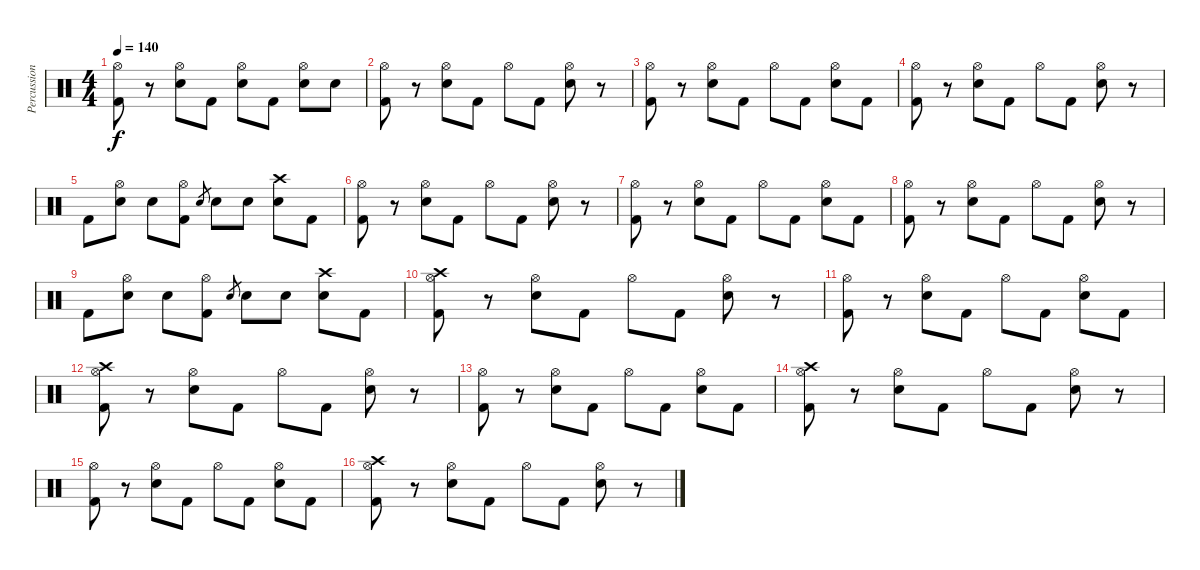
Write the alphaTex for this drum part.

\track ("Percussion" "Percussion") {instrument percussion}
\staff {score}
\articulation defaults
\ts (4 4)
\tempo 140
\clef neutral
\ks c
("Hi-Hat (open)" "Kick (hit) 2").8{dy f} r.8 ("Hi-Hat (open)" "Electric Snare (hit)").8 "Kick (hit) 2".8 ("Hi-Hat (open)" "Electric Snare (hit)").8 "Kick (hit) 2".8 ("Hi-Hat (open)" "Electric Snare (hit)").8 "Electric Snare (hit)".8 |
("Hi-Hat (open)" "Kick (hit) 2").8 r.8 ("Hi-Hat (open)" "Electric Snare (hit)").8 "Kick (hit) 2".8 "Hi-Hat (open)".8 "Kick (hit) 2".8 ("Hi-Hat (open)" "Electric Snare (hit)").8 r.8 |
("Hi-Hat (open)" "Kick (hit) 2").8 r.8 ("Hi-Hat (open)" "Electric Snare (hit)").8 "Kick (hit) 2".8 "Hi-Hat (open)".8 "Kick (hit) 2".8 ("Hi-Hat (open)" "Electric Snare (hit)").8 "Kick (hit) 2".8 |
("Hi-Hat (open)" "Kick (hit) 2").8 r.8 ("Hi-Hat (open)" "Electric Snare (hit)").8 "Kick (hit) 2".8 "Hi-Hat (open)".8 "Kick (hit) 2".8 ("Hi-Hat (open)" "Electric Snare (hit)").8 r.8 |
"Kick (hit) 2".8 ("Hi-Hat (open)" "Electric Snare (hit)").8 "Electric Snare (hit)".8 ("Hi-Hat (open)" "Kick (hit) 2").8 "Electric Snare (hit)".8{gr} "Electric Snare (hit)".8 "Electric Snare (hit)".8 ("Crash high (hit)" "Electric Snare (hit)").8 "Kick (hit) 2".8 |
("Hi-Hat (open)" "Kick (hit) 2").8 r.8 ("Hi-Hat (open)" "Electric Snare (hit)").8 "Kick (hit) 2".8 "Hi-Hat (open)".8 "Kick (hit) 2".8 ("Hi-Hat (open)" "Electric Snare (hit)").8 r.8 |
("Hi-Hat (open)" "Kick (hit) 2").8 r.8 ("Hi-Hat (open)" "Electric Snare (hit)").8 "Kick (hit) 2".8 "Hi-Hat (open)".8 "Kick (hit) 2".8 ("Hi-Hat (open)" "Electric Snare (hit)").8 "Kick (hit) 2".8 |
("Hi-Hat (open)" "Kick (hit) 2").8 r.8 ("Hi-Hat (open)" "Electric Snare (hit)").8 "Kick (hit) 2".8 "Hi-Hat (open)".8 "Kick (hit) 2".8 ("Hi-Hat (open)" "Electric Snare (hit)").8 r.8 |
"Kick (hit) 2".8 ("Hi-Hat (open)" "Electric Snare (hit)").8 "Electric Snare (hit)".8 ("Hi-Hat (open)" "Kick (hit) 2").8 "Electric Snare (hit)".8{gr} "Electric Snare (hit)".8 "Electric Snare (hit)".8 ("Crash high (hit)" "Electric Snare (hit)").8 "Kick (hit) 2".8 |
("Hi-Hat (open)" "Crash high (hit)" "Kick (hit) 2").8 r.8 ("Hi-Hat (open)" "Electric Snare (hit)").8 "Kick (hit) 2".8 "Hi-Hat (open)".8 "Kick (hit) 2".8 ("Hi-Hat (open)" "Electric Snare (hit)").8 r.8 |
("Hi-Hat (open)" "Kick (hit) 2").8 r.8 ("Hi-Hat (open)" "Electric Snare (hit)").8 "Kick (hit) 2".8 "Hi-Hat (open)".8 "Kick (hit) 2".8 ("Hi-Hat (open)" "Electric Snare (hit)").8 "Kick (hit) 2".8 |
("Hi-Hat (open)" "Crash high (hit)" "Kick (hit) 2").8 r.8 ("Hi-Hat (open)" "Electric Snare (hit)").8 "Kick (hit) 2".8 "Hi-Hat (open)".8 "Kick (hit) 2".8 ("Hi-Hat (open)" "Electric Snare (hit)").8 r.8 |
("Hi-Hat (open)" "Kick (hit) 2").8 r.8 ("Hi-Hat (open)" "Electric Snare (hit)").8 "Kick (hit) 2".8 "Hi-Hat (open)".8 "Kick (hit) 2".8 ("Hi-Hat (open)" "Electric Snare (hit)").8 "Kick (hit) 2".8 |
("Hi-Hat (open)" "Crash high (hit)" "Kick (hit) 2").8 r.8 ("Hi-Hat (open)" "Electric Snare (hit)").8 "Kick (hit) 2".8 "Hi-Hat (open)".8 "Kick (hit) 2".8 ("Hi-Hat (open)" "Electric Snare (hit)").8 r.8 |
("Hi-Hat (open)" "Kick (hit) 2").8 r.8 ("Hi-Hat (open)" "Electric Snare (hit)").8 "Kick (hit) 2".8 "Hi-Hat (open)".8 "Kick (hit) 2".8 ("Hi-Hat (open)" "Electric Snare (hit)").8 "Kick (hit) 2".8 |
("Hi-Hat (open)" "Crash high (hit)" "Kick (hit) 2").8 r.8 ("Hi-Hat (open)" "Electric Snare (hit)").8 "Kick (hit) 2".8 "Hi-Hat (open)".8 "Kick (hit) 2".8 ("Hi-Hat (open)" "Electric Snare (hit)").8 r.8
